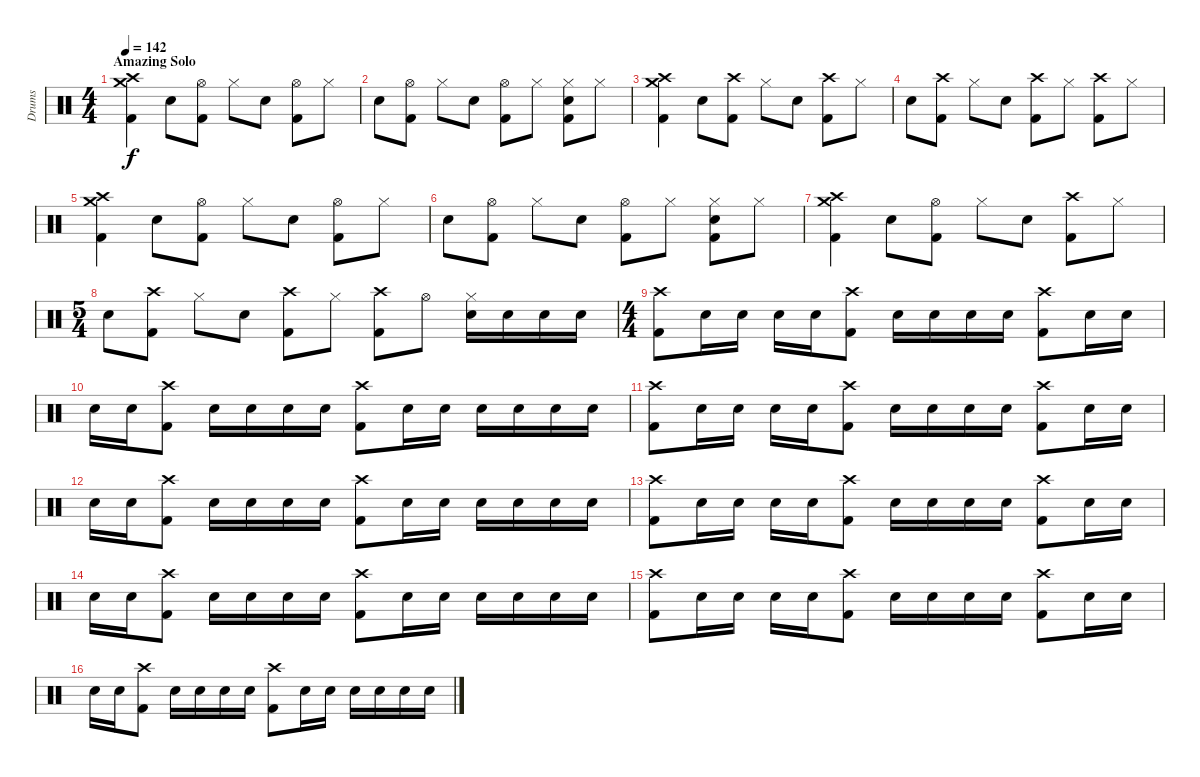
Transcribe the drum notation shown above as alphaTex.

\track ("Drums" "Drums") {instrument percussion}
\staff {score}
\articulation defaults
\ts (4 4)
\section ("" "Amazing Solo")
\tempo 142
\clef neutral
\ks c
("Crash high (hit)" "Crash medium (hit)" "Kick (hit) 2").4{dy f} "Electric Snare (hit)".8 ("Hi-Hat (open)" "Kick (hit) 2").8 "Hi-Hat (closed)".8 "Electric Snare (hit)".8 ("Hi-Hat (open)" "Kick (hit) 2").8 "Hi-Hat (closed)".8 |
"Electric Snare (hit)".8 ("Hi-Hat (open)" "Kick (hit) 2").8 "Hi-Hat (closed)".8 "Electric Snare (hit)".8 ("Hi-Hat (open)" "Kick (hit) 2").8 "Hi-Hat (closed)".8 ("Hi-Hat (closed)" "Electric Snare (hit)" "Kick (hit) 2").8 "Hi-Hat (closed)".8 |
("Crash high (hit)" "Crash medium (hit)" "Kick (hit) 2").4 "Electric Snare (hit)".8 ("Crash high (hit)" "Kick (hit) 2").8 "Hi-Hat (closed)".8 "Electric Snare (hit)".8 ("Crash high (hit)" "Kick (hit) 2").8 "Hi-Hat (closed)".8 |
"Electric Snare (hit)".8 ("Crash high (hit)" "Kick (hit) 2").8 "Hi-Hat (closed)".8 "Electric Snare (hit)".8 ("Crash high (hit)" "Kick (hit) 2").8 "Hi-Hat (closed)".8 ("Crash high (hit)" "Kick (hit) 2").8 "Hi-Hat (closed)".8 |
("Crash high (hit)" "Crash medium (hit)" "Kick (hit) 2").4 "Electric Snare (hit)".8 ("Hi-Hat (open)" "Kick (hit) 2").8 "Hi-Hat (closed)".8 "Electric Snare (hit)".8 ("Hi-Hat (open)" "Kick (hit) 2").8 "Hi-Hat (closed)".8 |
"Electric Snare (hit)".8 ("Hi-Hat (open)" "Kick (hit) 2").8 "Hi-Hat (closed)".8 "Electric Snare (hit)".8 ("Hi-Hat (open)" "Kick (hit) 2").8 "Hi-Hat (closed)".8 ("Hi-Hat (closed)" "Electric Snare (hit)" "Kick (hit) 2").8 "Hi-Hat (closed)".8 |
("Crash high (hit)" "Crash medium (hit)" "Kick (hit) 2").4 "Electric Snare (hit)".8 ("Hi-Hat (open)" "Kick (hit) 2").8 "Hi-Hat (closed)".8 "Electric Snare (hit)".8 ("Crash high (hit)" "Kick (hit) 2").8 "Hi-Hat (closed)".8 |
\ts (5 4)
"Electric Snare (hit)".8 ("Crash high (hit)" "Kick (hit) 2").8 "Hi-Hat (closed)".8 "Electric Snare (hit)".8 ("Crash high (hit)" "Kick (hit) 2").8 "Hi-Hat (closed)".8 ("Crash high (hit)" "Kick (hit) 2").8 "Hi-Hat (open)".8 ("Hi-Hat (closed)" "Electric Snare (hit)").16 "Electric Snare (hit)".16 "Electric Snare (hit)".16 "Electric Snare (hit)".16 |
\ts (4 4)
("Crash high (hit)" "Kick (hit) 2").8 "Electric Snare (hit)".16 "Electric Snare (hit)".16 "Electric Snare (hit)".16 "Electric Snare (hit)".16 ("Crash high (hit)" "Kick (hit) 2").8 "Electric Snare (hit)".16 "Electric Snare (hit)".16 "Electric Snare (hit)".16 "Electric Snare (hit)".16 ("Crash high (hit)" "Kick (hit) 2").8 "Electric Snare (hit)".16 "Electric Snare (hit)".16 |
"Electric Snare (hit)".16 "Electric Snare (hit)".16 ("Crash high (hit)" "Kick (hit) 2").8 "Electric Snare (hit)".16 "Electric Snare (hit)".16 "Electric Snare (hit)".16 "Electric Snare (hit)".16 ("Crash high (hit)" "Kick (hit) 2").8 "Electric Snare (hit)".16 "Electric Snare (hit)".16 "Electric Snare (hit)".16 "Electric Snare (hit)".16 "Electric Snare (hit)".16 "Electric Snare (hit)".16 |
("Crash high (hit)" "Kick (hit) 2").8 "Electric Snare (hit)".16 "Electric Snare (hit)".16 "Electric Snare (hit)".16 "Electric Snare (hit)".16 ("Crash high (hit)" "Kick (hit) 2").8 "Electric Snare (hit)".16 "Electric Snare (hit)".16 "Electric Snare (hit)".16 "Electric Snare (hit)".16 ("Crash high (hit)" "Kick (hit) 2").8 "Electric Snare (hit)".16 "Electric Snare (hit)".16 |
"Electric Snare (hit)".16 "Electric Snare (hit)".16 ("Crash high (hit)" "Kick (hit) 2").8 "Electric Snare (hit)".16 "Electric Snare (hit)".16 "Electric Snare (hit)".16 "Electric Snare (hit)".16 ("Crash high (hit)" "Kick (hit) 2").8 "Electric Snare (hit)".16 "Electric Snare (hit)".16 "Electric Snare (hit)".16 "Electric Snare (hit)".16 "Electric Snare (hit)".16 "Electric Snare (hit)".16 |
("Crash high (hit)" "Kick (hit) 2").8 "Electric Snare (hit)".16 "Electric Snare (hit)".16 "Electric Snare (hit)".16 "Electric Snare (hit)".16 ("Crash high (hit)" "Kick (hit) 2").8 "Electric Snare (hit)".16 "Electric Snare (hit)".16 "Electric Snare (hit)".16 "Electric Snare (hit)".16 ("Crash high (hit)" "Kick (hit) 2").8 "Electric Snare (hit)".16 "Electric Snare (hit)".16 |
"Electric Snare (hit)".16 "Electric Snare (hit)".16 ("Crash high (hit)" "Kick (hit) 2").8 "Electric Snare (hit)".16 "Electric Snare (hit)".16 "Electric Snare (hit)".16 "Electric Snare (hit)".16 ("Crash high (hit)" "Kick (hit) 2").8 "Electric Snare (hit)".16 "Electric Snare (hit)".16 "Electric Snare (hit)".16 "Electric Snare (hit)".16 "Electric Snare (hit)".16 "Electric Snare (hit)".16 |
("Crash high (hit)" "Kick (hit) 2").8 "Electric Snare (hit)".16 "Electric Snare (hit)".16 "Electric Snare (hit)".16 "Electric Snare (hit)".16 ("Crash high (hit)" "Kick (hit) 2").8 "Electric Snare (hit)".16 "Electric Snare (hit)".16 "Electric Snare (hit)".16 "Electric Snare (hit)".16 ("Crash high (hit)" "Kick (hit) 2").8 "Electric Snare (hit)".16 "Electric Snare (hit)".16 |
"Electric Snare (hit)".16 "Electric Snare (hit)".16 ("Crash high (hit)" "Kick (hit) 2").8 "Electric Snare (hit)".16 "Electric Snare (hit)".16 "Electric Snare (hit)".16 "Electric Snare (hit)".16 ("Crash high (hit)" "Kick (hit) 2").8 "Electric Snare (hit)".16 "Electric Snare (hit)".16 "Electric Snare (hit)".16 "Electric Snare (hit)".16 "Electric Snare (hit)".16 "Electric Snare (hit)".16
